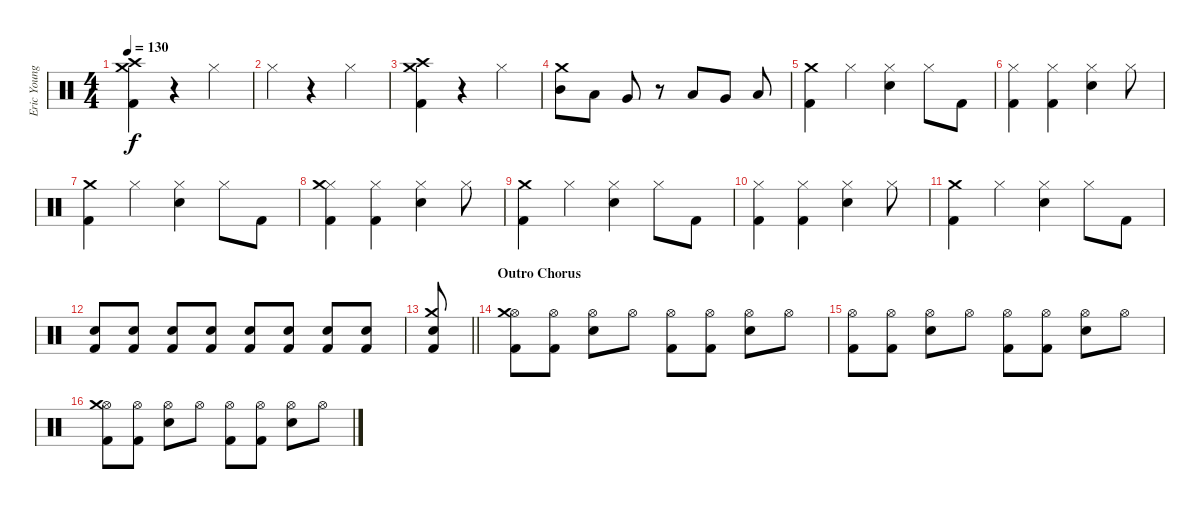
\track ("Eric Young (Drums)" "Eric Young") {instrument percussion}
\staff {score}
\articulation defaults
\ts (4 4)
\tempo 130
\clef neutral
\ks c
("Kick (hit) 2" "Crash high (hit)" "Crash medium (hit)").4{dy f} r.4 "Hi-Hat (closed)".4 |
"Hi-Hat (closed)".4 r.4 "Hi-Hat (closed)".4 |
("Kick (hit) 2" "Crash high (hit)" "Crash medium (hit)").4 r.4 "Hi-Hat (closed)".4 |
("Mid Tom (hit)" "Crash medium (hit)").8 "Low Tom (hit)".8 "Very Low Tom (hit)".8 r.8 "Low Tom (hit)".8 "Very Low Tom (hit)".8 "Low Floor Tom (hit)".8 |
("Kick (hit) 2" "Crash medium (hit)").4 "Hi-Hat (closed)".4 ("Hi-Hat (closed)" "Snare (hit) 2").4 "Hi-Hat (closed)".8 "Kick (hit) 2".8 |
("Hi-Hat (closed)" "Kick (hit) 2").4 ("Hi-Hat (closed)" "Kick (hit) 2").4 ("Hi-Hat (closed)" "Snare (hit) 2").4 "Hi-Hat (closed)".8 |
("Kick (hit) 2" "Crash medium (hit)").4 "Hi-Hat (closed)".4 ("Hi-Hat (closed)" "Snare (hit) 2").4 "Hi-Hat (closed)".8 "Kick (hit) 2".8 |
("Hi-Hat (closed)" "Kick (hit) 2" "Crash medium (hit)").4 ("Hi-Hat (closed)" "Kick (hit) 2").4 ("Hi-Hat (closed)" "Snare (hit) 2").4 "Hi-Hat (closed)".8 |
("Kick (hit) 2" "Crash medium (hit)").4 "Hi-Hat (closed)".4 ("Hi-Hat (closed)" "Snare (hit) 2").4 "Hi-Hat (closed)".8 "Kick (hit) 2".8 |
("Hi-Hat (closed)" "Kick (hit) 2").4 ("Hi-Hat (closed)" "Kick (hit) 2").4 ("Hi-Hat (closed)" "Snare (hit) 2").4 "Hi-Hat (closed)".8 |
("Kick (hit) 2" "Crash medium (hit)").4 "Hi-Hat (closed)".4 ("Hi-Hat (closed)" "Snare (hit) 2").4 "Hi-Hat (closed)".8 "Kick (hit) 2".8 |
("Kick (hit) 2" "Snare (hit) 2").8 ("Kick (hit) 2" "Snare (hit) 2").8 ("Kick (hit) 2" "Snare (hit) 2").8 ("Kick (hit) 2" "Snare (hit) 2").8 ("Kick (hit) 2" "Snare (hit) 2").8 ("Kick (hit) 2" "Snare (hit) 2").8 ("Kick (hit) 2" "Snare (hit) 2").8 ("Kick (hit) 2" "Snare (hit) 2").8 |
\barLineRight lightlight
("Kick (hit) 2" "Snare (hit) 2" "Crash medium (hit)").8 |
\section ("" "Outro Chorus")
("Hi-Hat (open)" "Kick (hit) 2" "Crash medium (hit)").8 ("Hi-Hat (open)" "Kick (hit) 2").8 ("Hi-Hat (open)" "Snare (hit) 2").8 "Hi-Hat (open)".8 ("Hi-Hat (open)" "Kick (hit) 2").8 ("Hi-Hat (open)" "Kick (hit) 2").8 ("Hi-Hat (open)" "Snare (hit) 2").8 "Hi-Hat (open)".8 |
("Hi-Hat (open)" "Kick (hit) 2").8 ("Hi-Hat (open)" "Kick (hit) 2").8 ("Hi-Hat (open)" "Snare (hit) 2").8 "Hi-Hat (open)".8 ("Hi-Hat (open)" "Kick (hit) 2").8 ("Hi-Hat (open)" "Kick (hit) 2").8 ("Hi-Hat (open)" "Snare (hit) 2").8 "Hi-Hat (open)".8 |
("Hi-Hat (open)" "Kick (hit) 2" "Crash medium (hit)").8 ("Hi-Hat (open)" "Kick (hit) 2").8 ("Hi-Hat (open)" "Snare (hit) 2").8 "Hi-Hat (open)".8 ("Hi-Hat (open)" "Kick (hit) 2").8 ("Hi-Hat (open)" "Kick (hit) 2").8 ("Hi-Hat (open)" "Snare (hit) 2").8 "Hi-Hat (open)".8
